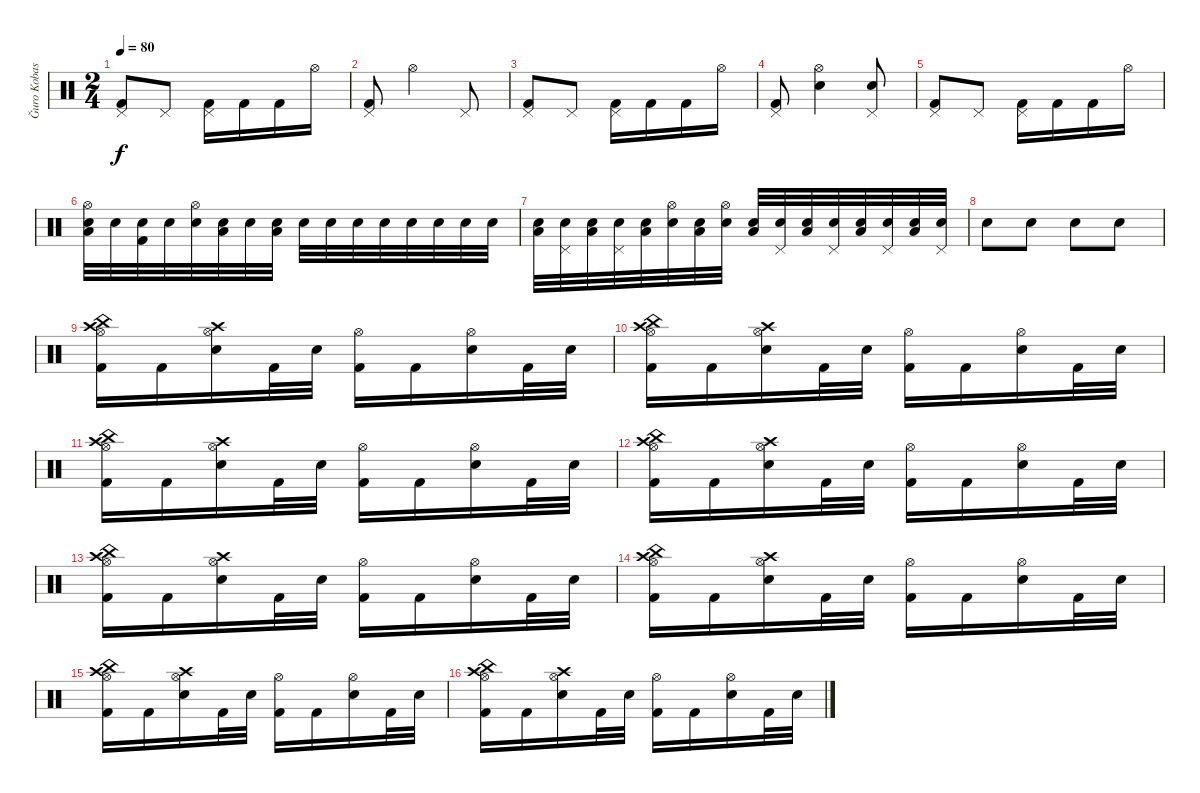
\track ("Ğuro Kobasiæmasniæ" "Ğuro Kobas") {instrument percussion}
\staff {score}
\articulation defaults
\ts (2 4)
\tempo 80
\clef neutral
\ks c
("Pedal Hi-Hat (hit)" "Kick (hit) 2").8{dy f} "Pedal Hi-Hat (hit)".8 ("Kick (hit) 2" "Pedal Hi-Hat (hit)").16 "Kick (hit) 2".16 "Kick (hit) 2".16 "Hi-Hat (open)".16 |
("Pedal Hi-Hat (hit)" "Kick (hit) 2").8 "Hi-Hat (open)".4 "Pedal Hi-Hat (hit)".8 |
("Pedal Hi-Hat (hit)" "Kick (hit) 2").8 "Pedal Hi-Hat (hit)".8 ("Pedal Hi-Hat (hit)" "Kick (hit) 2").16 "Kick (hit) 2".16 "Kick (hit) 2".16 "Hi-Hat (open)".16 |
("Pedal Hi-Hat (hit)" "Kick (hit) 2").8 ("Hi-Hat (open)" "Electric Snare (hit)").4 ("Pedal Hi-Hat (hit)" "Electric Snare (hit)").8 |
("Pedal Hi-Hat (hit)" "Kick (hit) 2").8 "Pedal Hi-Hat (hit)".8 ("Kick (hit) 2" "Pedal Hi-Hat (hit)").16 "Kick (hit) 2".16 "Kick (hit) 2".16 "Hi-Hat (open)".16 |
("Hi-Hat (open)" "Low Floor Tom (hit)" "Electric Snare (hit)").32 "Electric Snare (hit)".32 ("Kick (hit) 2" "Electric Snare (hit)").32 "Electric Snare (hit)".32 ("Hi-Hat (open)" "Electric Snare (hit)").32 ("Low Floor Tom (hit)" "Electric Snare (hit)").32 "Electric Snare (hit)".32 ("Low Floor Tom (hit)" "Electric Snare (hit)").32 "Electric Snare (hit)".32 "Electric Snare (hit)".32 "Electric Snare (hit)".32 "Electric Snare (hit)".32 "Electric Snare (hit)".32 "Electric Snare (hit)".32 "Electric Snare (hit)".32 "Electric Snare (hit)".32 |
("Low Floor Tom (hit)" "Electric Snare (hit)").32 ("Pedal Hi-Hat (hit)" "Electric Snare (hit)").32 ("Low Floor Tom (hit)" "Electric Snare (hit)").32 ("Pedal Hi-Hat (hit)" "Electric Snare (hit)").32 ("Low Floor Tom (hit)" "Electric Snare (hit)").32 ("Hi-Hat (open)" "Electric Snare (hit)").32 ("Low Floor Tom (hit)" "Electric Snare (hit)").32 ("Hi-Hat (open)" "Electric Snare (hit)").32 ("Low Floor Tom (hit)" "Electric Snare (hit)").32 ("Pedal Hi-Hat (hit)" "Electric Snare (hit)").32 ("Low Floor Tom (hit)" "Electric Snare (hit)").32 ("Pedal Hi-Hat (hit)" "Electric Snare (hit)").32 ("Low Floor Tom (hit)" "Electric Snare (hit)").32 ("Pedal Hi-Hat (hit)" "Electric Snare (hit)").32 ("Low Floor Tom (hit)" "Electric Snare (hit)").32 ("Pedal Hi-Hat (hit)" "Electric Snare (hit)").32 |
"Electric Snare (hit)".8 "Electric Snare (hit)".8 "Electric Snare (hit)".8 "Electric Snare (hit)".8 |
("China (hit)" "Crash high (hit)" "Hi-Hat (open)" "Kick (hit) 2").16 "Kick (hit) 2".16 ("Crash high (hit)" "Hi-Hat (open)" "Electric Snare (hit)").16 "Kick (hit) 2".32 "Electric Snare (hit)".32 ("Hi-Hat (open)" "Kick (hit) 2").16 "Kick (hit) 2".16 ("Hi-Hat (open)" "Electric Snare (hit)").16 "Kick (hit) 2".32 "Electric Snare (hit)".32 |
("China (hit)" "Crash high (hit)" "Hi-Hat (open)" "Kick (hit) 2").16 "Kick (hit) 2".16 ("Crash high (hit)" "Hi-Hat (open)" "Electric Snare (hit)").16 "Kick (hit) 2".32 "Electric Snare (hit)".32 ("Hi-Hat (open)" "Kick (hit) 2").16 "Kick (hit) 2".16 ("Hi-Hat (open)" "Electric Snare (hit)").16 "Kick (hit) 2".32 "Electric Snare (hit)".32 |
("China (hit)" "Crash high (hit)" "Hi-Hat (open)" "Kick (hit) 2").16 "Kick (hit) 2".16 ("Crash high (hit)" "Hi-Hat (open)" "Electric Snare (hit)").16 "Kick (hit) 2".32 "Electric Snare (hit)".32 ("Hi-Hat (open)" "Kick (hit) 2").16 "Kick (hit) 2".16 ("Hi-Hat (open)" "Electric Snare (hit)").16 "Kick (hit) 2".32 "Electric Snare (hit)".32 |
("China (hit)" "Crash high (hit)" "Hi-Hat (open)" "Kick (hit) 2").16 "Kick (hit) 2".16 ("Crash high (hit)" "Hi-Hat (open)" "Electric Snare (hit)").16 "Kick (hit) 2".32 "Electric Snare (hit)".32 ("Hi-Hat (open)" "Kick (hit) 2").16 "Kick (hit) 2".16 ("Hi-Hat (open)" "Electric Snare (hit)").16 "Kick (hit) 2".32 "Electric Snare (hit)".32 |
("China (hit)" "Crash high (hit)" "Hi-Hat (open)" "Kick (hit) 2").16 "Kick (hit) 2".16 ("Crash high (hit)" "Hi-Hat (open)" "Electric Snare (hit)").16 "Kick (hit) 2".32 "Electric Snare (hit)".32 ("Hi-Hat (open)" "Kick (hit) 2").16 "Kick (hit) 2".16 ("Hi-Hat (open)" "Electric Snare (hit)").16 "Kick (hit) 2".32 "Electric Snare (hit)".32 |
("China (hit)" "Crash high (hit)" "Hi-Hat (open)" "Kick (hit) 2").16 "Kick (hit) 2".16 ("Crash high (hit)" "Hi-Hat (open)" "Electric Snare (hit)").16 "Kick (hit) 2".32 "Electric Snare (hit)".32 ("Hi-Hat (open)" "Kick (hit) 2").16 "Kick (hit) 2".16 ("Hi-Hat (open)" "Electric Snare (hit)").16 "Kick (hit) 2".32 "Electric Snare (hit)".32 |
("China (hit)" "Crash high (hit)" "Hi-Hat (open)" "Kick (hit) 2").16 "Kick (hit) 2".16 ("Crash high (hit)" "Hi-Hat (open)" "Electric Snare (hit)").16 "Kick (hit) 2".32 "Electric Snare (hit)".32 ("Hi-Hat (open)" "Kick (hit) 2").16 "Kick (hit) 2".16 ("Hi-Hat (open)" "Electric Snare (hit)").16 "Kick (hit) 2".32 "Electric Snare (hit)".32 |
("China (hit)" "Crash high (hit)" "Hi-Hat (open)" "Kick (hit) 2").16 "Kick (hit) 2".16 ("Crash high (hit)" "Hi-Hat (open)" "Electric Snare (hit)").16 "Kick (hit) 2".32 "Electric Snare (hit)".32 ("Hi-Hat (open)" "Kick (hit) 2").16 "Kick (hit) 2".16 ("Hi-Hat (open)" "Electric Snare (hit)").16 "Kick (hit) 2".32 "Electric Snare (hit)".32
